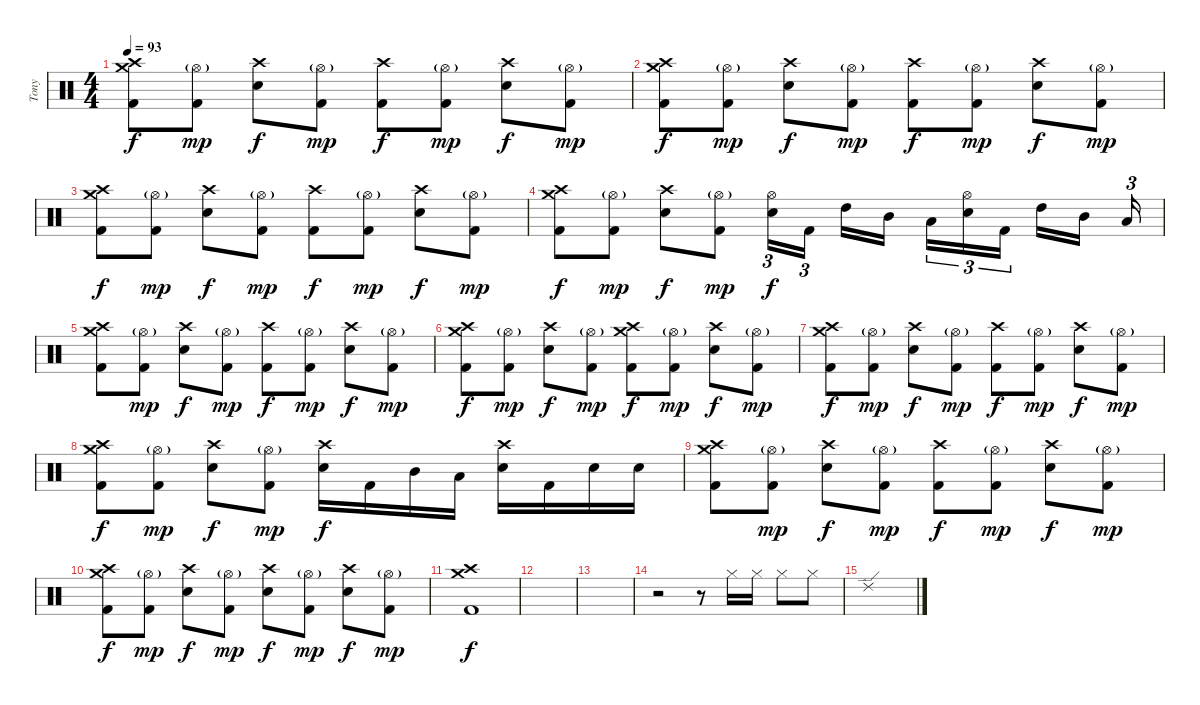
\track ("Tony" "Tony") {instrument percussion}
\staff {score}
\articulation defaults
\ts (4 4)
\tempo 93
\clef neutral
\ks c
("Crash high (hit)" "Crash medium (hit)" "Kick (hit) 2").8{dy f} ("Hi-Hat (open)"{g} "Kick (hit) 2").8{dy mp} ("Crash high (hit)" "Electric Snare (hit)").8{dy f} ("Hi-Hat (open)"{g} "Kick (hit) 2").8{dy mp} ("Crash high (hit)" "Kick (hit) 2").8{dy f} ("Hi-Hat (open)"{g} "Kick (hit) 2").8{dy mp} ("Crash high (hit)" "Electric Snare (hit)").8{dy f} ("Hi-Hat (open)"{g} "Kick (hit) 2").8{dy mp} |
("Crash high (hit)" "Crash medium (hit)" "Kick (hit) 2").8{dy f} ("Hi-Hat (open)"{g} "Kick (hit) 2").8{dy mp} ("Crash high (hit)" "Electric Snare (hit)").8{dy f} ("Hi-Hat (open)"{g} "Kick (hit) 2").8{dy mp} ("Crash high (hit)" "Kick (hit) 2").8{dy f} ("Hi-Hat (open)"{g} "Kick (hit) 2").8{dy mp} ("Crash high (hit)" "Electric Snare (hit)").8{dy f} ("Hi-Hat (open)"{g} "Kick (hit) 2").8{dy mp} |
("Crash high (hit)" "Crash medium (hit)" "Kick (hit) 2").8{dy f} ("Hi-Hat (open)"{g} "Kick (hit) 2").8{dy mp} ("Crash high (hit)" "Electric Snare (hit)").8{dy f} ("Hi-Hat (open)"{g} "Kick (hit) 2").8{dy mp} ("Crash high (hit)" "Kick (hit) 2").8{dy f} ("Hi-Hat (open)"{g} "Kick (hit) 2").8{dy mp} ("Crash high (hit)" "Electric Snare (hit)").8{dy f} ("Hi-Hat (open)"{g} "Kick (hit) 2").8{dy mp} |
("Crash high (hit)" "Crash medium (hit)" "Kick (hit) 2").8{dy f} ("Hi-Hat (open)"{g} "Kick (hit) 2").8{dy mp} ("Crash high (hit)" "Electric Snare (hit)").8{dy f} ("Hi-Hat (open)"{g} "Kick (hit) 2").8{dy mp} ("Hi-Hat (open)" "Electric Snare (hit)").16{tu (3 2) dy f} "Kick (hit) 2".16{tu (3 2) beam splitsecondary} "High Tom (hit)".16 "Mid Tom (hit)".16{beam splitsecondary} "Low Tom (hit)".16{tu (3 2)} ("Hi-Hat (open)" "Electric Snare (hit)").16{tu (3 2)} "Kick (hit) 2".16{tu (3 2) beam splitsecondary} "High Tom (hit)".16 "Mid Tom (hit)".16{beam splitsecondary} "Low Tom (hit)".16{tu (3 2)} |
("Crash high (hit)" "Crash medium (hit)" "Kick (hit) 2").8 ("Hi-Hat (open)"{g} "Kick (hit) 2").8{dy mp} ("Crash high (hit)" "Electric Snare (hit)").8{dy f} ("Hi-Hat (open)"{g} "Kick (hit) 2").8{dy mp} ("Crash high (hit)" "Kick (hit) 2").8{dy f} ("Hi-Hat (open)"{g} "Kick (hit) 2").8{dy mp} ("Crash high (hit)" "Electric Snare (hit)").8{dy f} ("Hi-Hat (open)"{g} "Kick (hit) 2").8{dy mp} |
("Crash high (hit)" "Crash medium (hit)" "Kick (hit) 2").8{dy f} ("Hi-Hat (open)"{g} "Kick (hit) 2").8{dy mp} ("Crash high (hit)" "Electric Snare (hit)").8{dy f} ("Hi-Hat (open)"{g} "Kick (hit) 2").8{dy mp} ("Crash medium (hit)" "Crash high (hit)" "Kick (hit) 2").8{dy f} ("Hi-Hat (open)"{g} "Kick (hit) 2").8{dy mp} ("Crash high (hit)" "Electric Snare (hit)").8{dy f} ("Hi-Hat (open)"{g} "Kick (hit) 2").8{dy mp} |
("Crash high (hit)" "Crash medium (hit)" "Kick (hit) 2").8{dy f} ("Hi-Hat (open)"{g} "Kick (hit) 2").8{dy mp} ("Crash high (hit)" "Electric Snare (hit)").8{dy f} ("Hi-Hat (open)"{g} "Kick (hit) 2").8{dy mp} ("Crash high (hit)" "Kick (hit) 2").8{dy f} ("Hi-Hat (open)"{g} "Kick (hit) 2").8{dy mp} ("Crash high (hit)" "Electric Snare (hit)").8{dy f} ("Hi-Hat (open)"{g} "Kick (hit) 2").8{dy mp} |
("Crash high (hit)" "Crash medium (hit)" "Kick (hit) 2").8{dy f} ("Hi-Hat (open)"{g} "Kick (hit) 2").8{dy mp} ("Crash high (hit)" "Electric Snare (hit)").8{dy f} ("Hi-Hat (open)"{g} "Kick (hit) 2").8{dy mp} ("Crash high (hit)" "Electric Snare (hit)").16{dy f} "Kick (hit) 2".16 "Mid Tom (hit)".16 "Low Tom (hit)".16 ("Crash high (hit)" "Electric Snare (hit)").16 "Kick (hit) 2".16 "Electric Snare (hit)".16 "Electric Snare (hit)".16 |
("Crash high (hit)" "Crash medium (hit)" "Kick (hit) 2").8 ("Hi-Hat (open)"{g} "Kick (hit) 2").8{dy mp} ("Crash high (hit)" "Electric Snare (hit)").8{dy f} ("Hi-Hat (open)"{g} "Kick (hit) 2").8{dy mp} ("Crash high (hit)" "Kick (hit) 2").8{dy f} ("Hi-Hat (open)"{g} "Kick (hit) 2").8{dy mp} ("Crash high (hit)" "Electric Snare (hit)").8{dy f} ("Hi-Hat (open)"{g} "Kick (hit) 2").8{dy mp} |
("Crash high (hit)" "Crash medium (hit)" "Kick (hit) 2").8{dy f} ("Hi-Hat (open)"{g} "Kick (hit) 2").8{dy mp} ("Crash high (hit)" "Electric Snare (hit)").8{dy f} ("Hi-Hat (open)"{g} "Kick (hit) 2").8{dy mp} ("Crash high (hit)" "Electric Snare (hit)").8{dy f} ("Hi-Hat (open)"{g} "Kick (hit) 2").8{dy mp} ("Crash high (hit)" "Electric Snare (hit)").8{dy f} ("Hi-Hat (open)"{g} "Kick (hit) 2").8{dy mp} |
("Crash high (hit)" "Crash medium (hit)" "Kick (hit) 2").1{dy f} |
|
|
r.2 r.8 "Hi-Hat (closed)".16 "Hi-Hat (closed)".16 "Hi-Hat (closed)".8 "Hi-Hat (closed)".8 |
"Ride (edge) 2".1
